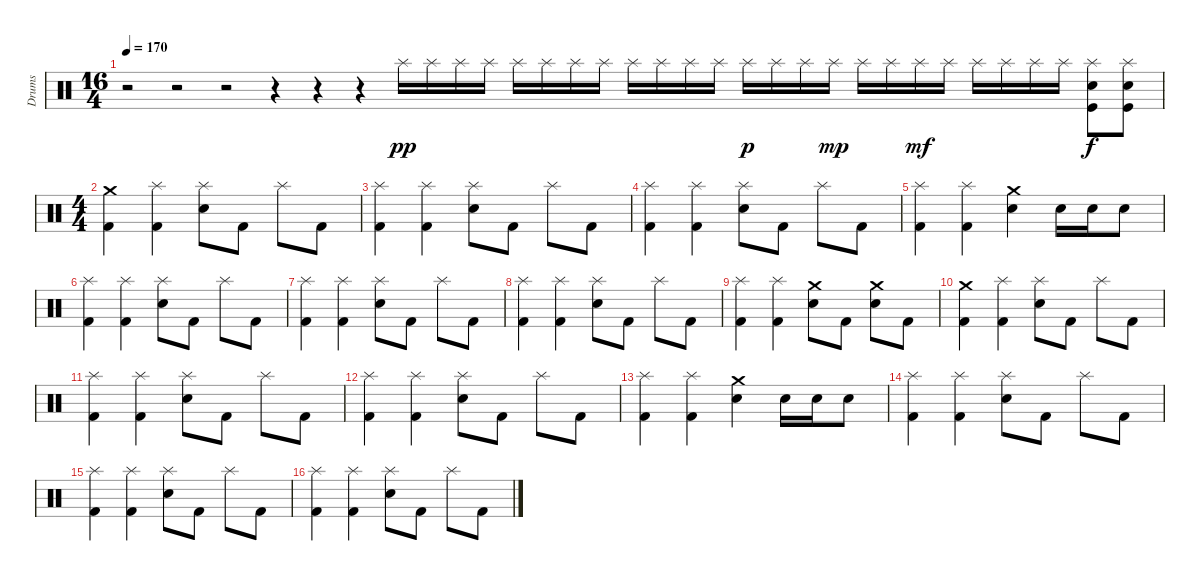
\track ("Drums" "Drums") {instrument percussion}
\staff {score}
\articulation defaults
\ts (16 4)
\tempo 170
\clef neutral
\ks c
r.2{dy pp} r.2 r.2 r.4 r.4 r.4 "Splash (hit)".16 "Splash (hit)".16 "Splash (hit)".16 "Splash (hit)".16 "Splash (hit)".16 "Splash (hit)".16 "Splash (hit)".16 "Splash (hit)".16 "Splash (hit)".16 "Splash (hit)".16 "Splash (hit)".16 "Splash (hit)".16 "Splash (hit)".16{dy p} "Splash (hit)".16 "Splash (hit)".16 "Splash (hit)".16{dy mp} "Splash (hit)".16 "Splash (hit)".16 "Splash (hit)".16{dy mf} "Splash (hit)".16 "Splash (hit)".16 "Splash (hit)".16 "Splash (hit)".16 "Splash (hit)".16 ("Splash (hit)" "Electric Snare (hit)" "Kick (hit)").8{dy f} ("Splash (hit)" "Electric Snare (hit)" "Kick (hit)").8 |
\ts (4 4)
("Crash medium (hit)" "Kick (hit) 2").4 ("Splash (hit)" "Kick (hit) 2").4 ("Splash (hit)" "Electric Snare (hit)").8 "Kick (hit) 2".8 "Splash (hit)".8 "Kick (hit) 2".8 |
("Splash (hit)" "Kick (hit) 2").4 ("Splash (hit)" "Kick (hit) 2").4 ("Splash (hit)" "Electric Snare (hit)").8 "Kick (hit) 2".8 "Splash (hit)".8 "Kick (hit) 2".8 |
("Splash (hit)" "Kick (hit) 2").4 ("Splash (hit)" "Kick (hit) 2").4 ("Splash (hit)" "Electric Snare (hit)").8 "Kick (hit) 2".8 "Splash (hit)".8 "Kick (hit) 2".8 |
("Splash (hit)" "Kick (hit) 2").4 ("Splash (hit)" "Kick (hit) 2").4 ("Crash medium (hit)" "Electric Snare (hit)").4 "Electric Snare (hit)".16 "Electric Snare (hit)".16 "Electric Snare (hit)".8 |
("Splash (hit)" "Kick (hit) 2").4 ("Splash (hit)" "Kick (hit) 2").4 ("Splash (hit)" "Electric Snare (hit)").8 "Kick (hit) 2".8 "Splash (hit)".8 "Kick (hit) 2".8 |
("Splash (hit)" "Kick (hit) 2").4 ("Splash (hit)" "Kick (hit) 2").4 ("Splash (hit)" "Electric Snare (hit)").8 "Kick (hit) 2".8 "Splash (hit)".8 "Kick (hit) 2".8 |
("Splash (hit)" "Kick (hit) 2").4 ("Splash (hit)" "Kick (hit) 2").4 ("Splash (hit)" "Electric Snare (hit)").8 "Kick (hit) 2".8 "Splash (hit)".8 "Kick (hit) 2".8 |
("Splash (hit)" "Kick (hit) 2").4 ("Splash (hit)" "Kick (hit) 2").4 ("Crash medium (hit)" "Electric Snare (hit)").8 "Kick (hit) 2".8 ("Crash medium (hit)" "Electric Snare (hit)").8 "Kick (hit) 2".8 |
("Crash medium (hit)" "Kick (hit) 2").4 ("Splash (hit)" "Kick (hit) 2").4 ("Splash (hit)" "Electric Snare (hit)").8 "Kick (hit) 2".8 "Splash (hit)".8 "Kick (hit) 2".8 |
("Splash (hit)" "Kick (hit) 2").4 ("Splash (hit)" "Kick (hit) 2").4 ("Splash (hit)" "Electric Snare (hit)").8 "Kick (hit) 2".8 "Splash (hit)".8 "Kick (hit) 2".8 |
("Splash (hit)" "Kick (hit) 2").4 ("Splash (hit)" "Kick (hit) 2").4 ("Splash (hit)" "Electric Snare (hit)").8 "Kick (hit) 2".8 "Splash (hit)".8 "Kick (hit) 2".8 |
("Splash (hit)" "Kick (hit) 2").4 ("Splash (hit)" "Kick (hit) 2").4 ("Crash medium (hit)" "Electric Snare (hit)").4 "Electric Snare (hit)".16 "Electric Snare (hit)".16 "Electric Snare (hit)".8 |
("Splash (hit)" "Kick (hit) 2").4 ("Splash (hit)" "Kick (hit) 2").4 ("Splash (hit)" "Electric Snare (hit)").8 "Kick (hit) 2".8 "Splash (hit)".8 "Kick (hit) 2".8 |
("Splash (hit)" "Kick (hit) 2").4 ("Splash (hit)" "Kick (hit) 2").4 ("Splash (hit)" "Electric Snare (hit)").8 "Kick (hit) 2".8 "Splash (hit)".8 "Kick (hit) 2".8 |
("Splash (hit)" "Kick (hit) 2").4 ("Splash (hit)" "Kick (hit) 2").4 ("Splash (hit)" "Electric Snare (hit)").8 "Kick (hit) 2".8 "Splash (hit)".8 "Kick (hit) 2".8
